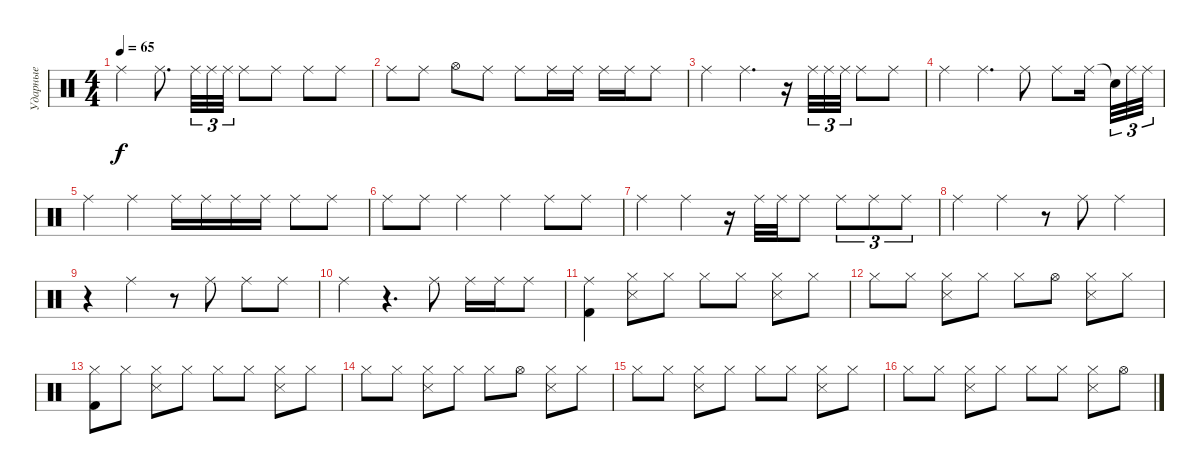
\track ("Ударные" "Ударные") {instrument percussion}
\staff {score}
\articulation defaults
\ts (4 4)
\tempo 65
\clef neutral
\ks c "Ride (middle)".4{dy f} "Ride (middle)".8{d} "Ride (middle)".32{tu (3 2)} "Ride (middle)".32{tu (3 2)} "Ride (middle)".32{tu (3 2)} "Ride (middle)".8 "Ride (middle)".8 "Ride (middle)".8 "Ride (middle)".8
|
"Ride (middle)".8 "Ride (middle)".8 "Hi-Hat (open)".8 "Ride (middle)".8 "Ride (middle)".8 "Ride (middle)".16 "Ride (middle)".16 "Ride (middle)".16 "Ride (middle)".16 "Ride (middle)".8 |
"Ride (middle)".4 "Ride (middle)".4{d} r.16 "Ride (middle)".32{tu (3 2)} "Ride (middle)".32{tu (3 2)} "Ride (middle)".32{tu (3 2)} "Ride (middle)".8 "Ride (middle)".8 |
"Ride (middle)".4 "Ride (middle)".4{d} "Ride (middle)".8 "Ride (middle)".8 "Ride (middle)".16{beam splitsecondary} "Snare (hit)"{t}.32{tu (3 2)} "Ride (middle)".32{tu (3 2)} "Ride (middle)".32{tu (3 2)} |
"Ride (middle)".4 "Ride (middle)".4 "Ride (middle)".16 "Ride (middle)".16 "Ride (middle)".16 "Ride (middle)".16 "Ride (middle)".8 "Ride (middle)".8 |
"Ride (middle)".8 "Ride (middle)".8 "Ride (middle)".4 "Ride (middle)".4 "Ride (middle)".8 "Ride (middle)".8 |
"Ride (middle)".4 "Ride (middle)".4 r.16 "Ride (middle)".32 "Ride (middle)".32 "Ride (middle)".8 "Ride (middle)".8{tu (3 2)} "Ride (middle)".8{tu (3 2)} "Ride (middle)".8{tu (3 2)} |
"Ride (middle)".4 "Ride (middle)".4 r.8 "Ride (middle)".8 "Ride (middle)".4 |
r.4 "Ride (middle)".4 r.8 "Ride (middle)".8 "Ride (middle)".8 "Ride (middle)".8 |
"Ride (middle)".4 r.4{d} "Ride (middle)".8 "Ride (middle)".16 "Ride (middle)".16 "Ride (middle)".8 |
("Kick (hit) 2" "Ride (middle)").4 ("Snare (side stick) 3" "Hi-Hat (closed)").8 "Hi-Hat (closed)".8 "Hi-Hat (closed)".8 "Hi-Hat (closed)".8 ("Snare (side stick) 3" "Hi-Hat (closed)").8 "Hi-Hat (closed)".8 |
"Hi-Hat (closed)".8 "Hi-Hat (closed)".8 ("Snare (side stick) 3" "Hi-Hat (closed)").8 "Hi-Hat (closed)".8 "Hi-Hat (closed)".8 "Hi-Hat (open)".8 ("Snare (side stick) 3" "Hi-Hat (closed)").8 "Hi-Hat (closed)".8 |
("Kick (hit) 2" "Hi-Hat (closed)").8 "Hi-Hat (closed)".8 ("Snare (side stick) 3" "Hi-Hat (closed)").8 "Hi-Hat (closed)".8 "Hi-Hat (closed)".8 "Hi-Hat (closed)".8 ("Snare (side stick) 3" "Hi-Hat (closed)").8 "Hi-Hat (closed)".8 |
"Hi-Hat (closed)".8 "Hi-Hat (closed)".8 ("Snare (side stick) 3" "Hi-Hat (closed)").8 "Hi-Hat (closed)".8 "Hi-Hat (closed)".8 "Hi-Hat (open)".8 ("Snare (side stick) 3" "Hi-Hat (closed)").8 "Hi-Hat (closed)".8 |
"Hi-Hat (closed)".8 "Hi-Hat (closed)".8 ("Snare (side stick) 3" "Hi-Hat (closed)").8 "Hi-Hat (closed)".8 "Hi-Hat (closed)".8 "Hi-Hat (closed)".8 ("Snare (side stick) 3" "Hi-Hat (closed)").8 "Hi-Hat (closed)".8 |
"Hi-Hat (closed)".8 "Hi-Hat (closed)".8 ("Snare (side stick) 3" "Hi-Hat (closed)").8 "Hi-Hat (closed)".8 "Hi-Hat (closed)".8 "Hi-Hat (closed)".8 ("Snare (side stick) 3" "Hi-Hat (closed)").8 "Hi-Hat (open)".8
